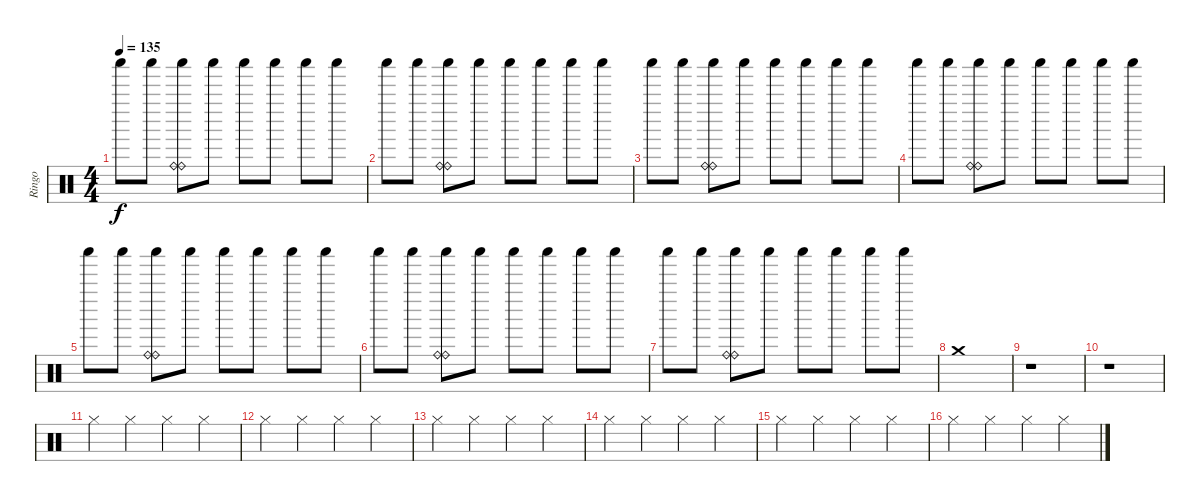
\track ("Ringo" "Ringo") {instrument percussion}
\staff {score}
\articulation defaults
\ts (4 4)
\tempo 135
\clef neutral
\ks c "Shaker (hit)".8{dy f volume 7} "Shaker (hit)".8
("Ride (bell)" "Shaker (hit)" "Ride (bell)").8{volume 16} "Shaker (hit)".8{volume 7} "Shaker (hit)".8 "Shaker (hit)".8 "Shaker (hit)".8 "Shaker (hit)".8 |
"Shaker (hit)".8{volume 7} "Shaker (hit)".8 ("Ride (bell)" "Shaker (hit)" "Ride (bell)").8{volume 16} "Shaker (hit)".8{volume 7} "Shaker (hit)".8 "Shaker (hit)".8 "Shaker (hit)".8 "Shaker (hit)".8 |
"Shaker (hit)".8{volume 7} "Shaker (hit)".8 ("Ride (bell)" "Shaker (hit)" "Ride (bell)").8{volume 16} "Shaker (hit)".8{volume 7} "Shaker (hit)".8 "Shaker (hit)".8 "Shaker (hit)".8 "Shaker (hit)".8 |
"Shaker (hit)".8{volume 7} "Shaker (hit)".8 ("Ride (bell)" "Shaker (hit)" "Ride (bell)").8{volume 16} "Shaker (hit)".8{volume 7} "Shaker (hit)".8 "Shaker (hit)".8 "Shaker (hit)".8 "Shaker (hit)".8 |
"Shaker (hit)".8{volume 7} "Shaker (hit)".8 ("Ride (bell)" "Shaker (hit)" "Ride (bell)").8{volume 16} "Shaker (hit)".8{volume 7} "Shaker (hit)".8 "Shaker (hit)".8 "Shaker (hit)".8 "Shaker (hit)".8 |
"Shaker (hit)".8{volume 7} "Shaker (hit)".8 ("Ride (bell)" "Shaker (hit)" "Ride (bell)").8{volume 16} "Shaker (hit)".8{volume 7} "Shaker (hit)".8 "Shaker (hit)".8 "Shaker (hit)".8 "Shaker (hit)".8 |
"Shaker (hit)".8{volume 7} "Shaker (hit)".8 ("Ride (bell)" "Shaker (hit)" "Ride (bell)").8{volume 16} "Shaker (hit)".8{volume 7} "Shaker (hit)".8 "Shaker (hit)".8 "Shaker (hit)".8 "Shaker (hit)".8 |
"Crash medium (hit)".1 |
r.1 |
r.1 |
"Hi-Hat (closed)".4 "Hi-Hat (closed)".4 "Hi-Hat (closed)".4 "Hi-Hat (closed)".4 |
"Hi-Hat (closed)".4 "Hi-Hat (closed)".4 "Hi-Hat (closed)".4 "Hi-Hat (closed)".4 |
"Hi-Hat (closed)".4 "Hi-Hat (closed)".4 "Hi-Hat (closed)".4 "Hi-Hat (closed)".4 |
"Hi-Hat (closed)".4 "Hi-Hat (closed)".4 "Hi-Hat (closed)".4 "Hi-Hat (closed)".4 |
"Hi-Hat (closed)".4 "Hi-Hat (closed)".4 "Hi-Hat (closed)".4 "Hi-Hat (closed)".4 |
"Hi-Hat (closed)".4 "Hi-Hat (closed)".4 "Hi-Hat (closed)".4 "Hi-Hat (closed)".4
